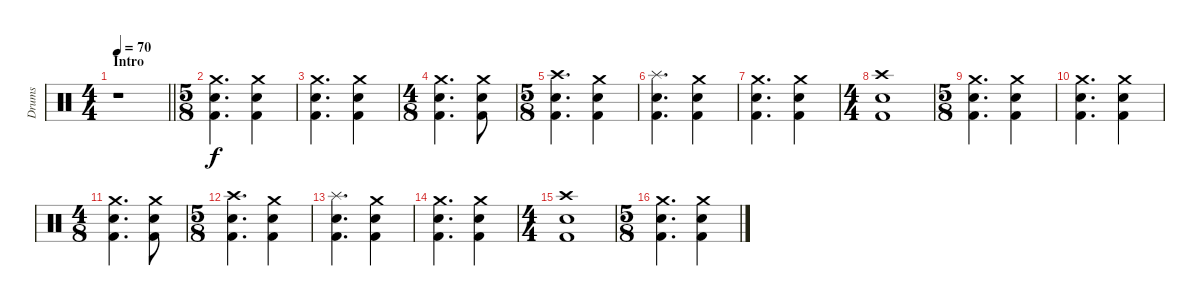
\track ("Drums" "Drums") {instrument percussion}
\staff {score}
\articulation defaults
\ts (4 4)
\section ("" "Intro")
\tempo 70
\clef neutral
\barLineRight lightlight
\ks c
r.1{dy f} |
\ts (5 8)
\section ("" "")
("Crash medium (hit)" "Electric Snare (hit)" "Kick (hit) 2").4{d} ("Crash medium (hit)" "Electric Snare (hit)" "Kick (hit) 2").4 |
("Crash medium (hit)" "Electric Snare (hit)" "Kick (hit) 2").4{d} ("Crash medium (hit)" "Electric Snare (hit)" "Kick (hit) 2").4 |
\ts (4 8)
("Crash medium (hit)" "Electric Snare (hit)" "Kick (hit) 2").4{d} ("Crash medium (hit)" "Electric Snare (hit)" "Kick (hit) 2").8 |
\ts (5 8)
("Crash high (hit)" "Electric Snare (hit)" "Kick (hit) 2").4{d} ("Crash medium (hit)" "Electric Snare (hit)" "Kick (hit) 2").4 |
("Splash (hit)" "Electric Snare (hit)" "Kick (hit) 2").4{d} ("Crash medium (hit)" "Electric Snare (hit)" "Kick (hit) 2").4 |
("Crash medium (hit)" "Electric Snare (hit)" "Kick (hit) 2").4{d} ("Crash medium (hit)" "Electric Snare (hit)" "Kick (hit) 2").4 |
\ts (4 4)
("Crash high (hit)" "Electric Snare (hit)" "Kick (hit) 2").1 |
\ts (5 8)
("Crash medium (hit)" "Electric Snare (hit)" "Kick (hit) 2").4{d} ("Crash medium (hit)" "Electric Snare (hit)" "Kick (hit) 2").4 |
("Crash medium (hit)" "Electric Snare (hit)" "Kick (hit) 2").4{d} ("Crash medium (hit)" "Electric Snare (hit)" "Kick (hit) 2").4 |
\ts (4 8)
("Crash medium (hit)" "Electric Snare (hit)" "Kick (hit) 2").4{d} ("Crash medium (hit)" "Electric Snare (hit)" "Kick (hit) 2").8 |
\ts (5 8)
("Crash high (hit)" "Electric Snare (hit)" "Kick (hit) 2").4{d} ("Crash medium (hit)" "Electric Snare (hit)" "Kick (hit) 2").4 |
("Splash (hit)" "Electric Snare (hit)" "Kick (hit) 2").4{d} ("Crash medium (hit)" "Electric Snare (hit)" "Kick (hit) 2").4 |
("Crash medium (hit)" "Electric Snare (hit)" "Kick (hit) 2").4{d} ("Crash medium (hit)" "Electric Snare (hit)" "Kick (hit) 2").4 |
\ts (4 4)
("Crash high (hit)" "Electric Snare (hit)" "Kick (hit) 2").1 |
\ts (5 8)
("Crash medium (hit)" "Electric Snare (hit)" "Kick (hit) 2").4{d} ("Crash medium (hit)" "Electric Snare (hit)" "Kick (hit) 2").4
